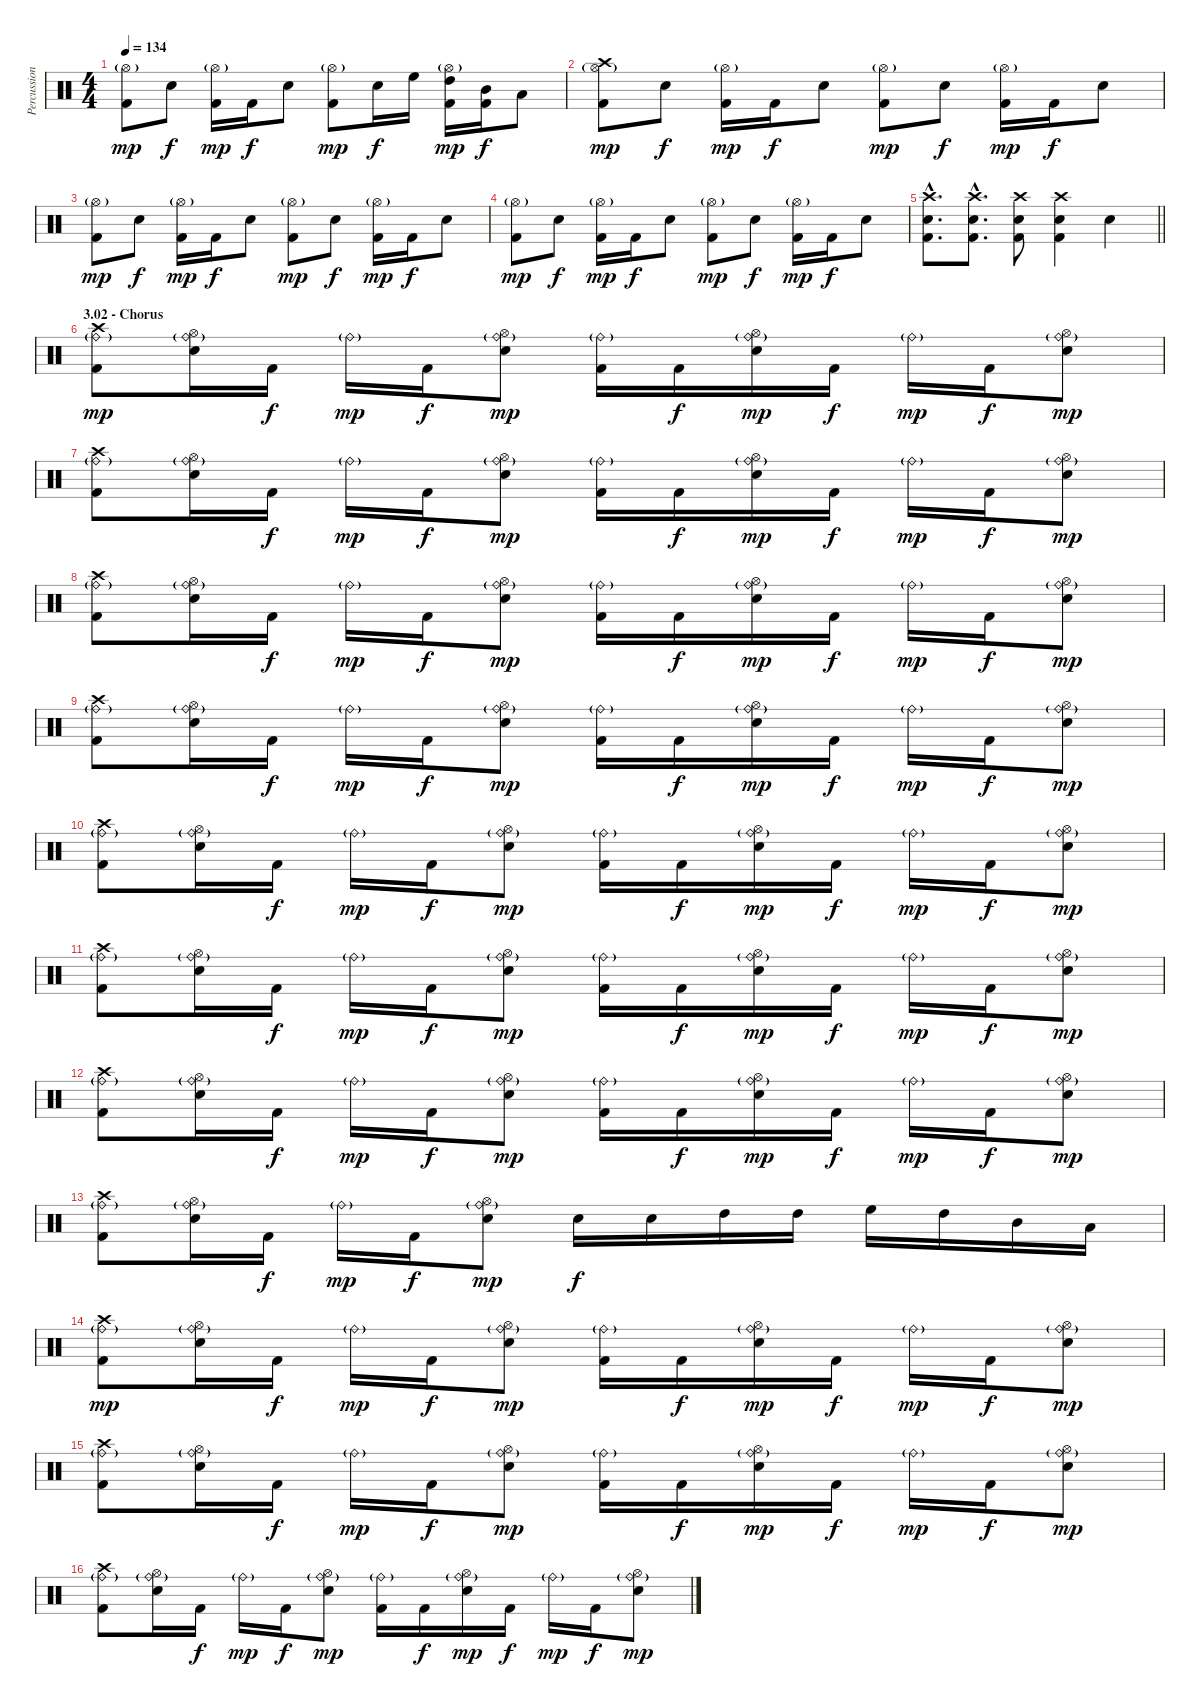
\track ("Percussion" "Percussion") {instrument percussion}
\staff {score}
\articulation defaults
\ts (4 4)
\tempo 134
\clef neutral
\ks aminor
("Hi-Hat (open)"{g} "Kick (hit) 2").8{dy mp} "Electric Snare (hit)".8{dy f} ("Hi-Hat (open)"{g} "Kick (hit) 2").16{dy mp} "Kick (hit) 2".16{dy f} "Electric Snare (hit)".8 ("Hi-Hat (open)"{g} "Kick (hit) 2").8{dy mp} "Electric Snare (hit)".16{dy f} "High Floor Tom (hit)".16 ("Hi-Hat (open)"{g} "High Tom (hit)" "Kick (hit) 2").16{dy mp} ("Mid Tom (hit)" "Kick (hit) 2").16{dy f} "Low Tom (hit)".8 |
("Crash high (hit)" "Hi-Hat (open)"{g} "Kick (hit) 2").8{dy mp} "Electric Snare (hit)".8{dy f} ("Hi-Hat (open)"{g} "Kick (hit) 2").16{dy mp} "Kick (hit) 2".16{dy f} "Electric Snare (hit)".8 ("Hi-Hat (open)"{g} "Kick (hit) 2").8{dy mp} "Electric Snare (hit)".8{dy f} ("Hi-Hat (open)"{g} "Kick (hit) 2").16{dy mp} "Kick (hit) 2".16{dy f} "Electric Snare (hit)".8 |
("Hi-Hat (open)"{g} "Kick (hit) 2").8{dy mp} "Electric Snare (hit)".8{dy f} ("Hi-Hat (open)"{g} "Kick (hit) 2").16{dy mp} "Kick (hit) 2".16{dy f} "Electric Snare (hit)".8 ("Hi-Hat (open)"{g} "Kick (hit) 2").8{dy mp} "Electric Snare (hit)".8{dy f} ("Hi-Hat (open)"{g} "Kick (hit) 2").16{dy mp} "Kick (hit) 2".16{dy f} "Electric Snare (hit)".8 |
("Hi-Hat (open)"{g} "Kick (hit) 2").8{dy mp} "Electric Snare (hit)".8{dy f} ("Hi-Hat (open)"{g} "Kick (hit) 2").16{dy mp} "Kick (hit) 2".16{dy f} "Electric Snare (hit)".8 ("Hi-Hat (open)"{g} "Kick (hit) 2").8{dy mp} "Electric Snare (hit)".8{dy f} ("Hi-Hat (open)"{g} "Kick (hit) 2").16{dy mp} "Kick (hit) 2".16{dy f} "Electric Snare (hit)".8 |
\barLineRight lightlight
("Crash high (hit)"{hac} "Electric Snare (hit)"{hac} "Kick (hit) 2"{hac}).8{d} ("Crash high (hit)"{hac} "Electric Snare (hit)"{hac} "Kick (hit) 2"{hac}).8{d} ("Crash high (hit)" "Electric Snare (hit)" "Kick (hit) 2").8 ("Crash high (hit)" "Electric Snare (hit)" "Kick (hit) 2").4 "Electric Snare (hit)".4 |
\section ("" "3.02 - Chorus")
("Crash high (hit)" "Ride (bell)"{g} "Kick (hit) 2").8{dy mp} ("Hi-Hat (open)" "Ride (bell)"{g} "Electric Snare (hit)").16 "Kick (hit) 2".16{dy f} "Ride (bell)"{g}.16{dy mp} "Kick (hit) 2".16{dy f} ("Hi-Hat (open)" "Ride (bell)"{g} "Electric Snare (hit)").8{dy mp} ("Ride (bell)"{g} "Kick (hit) 2").16 "Kick (hit) 2".16{dy f} ("Hi-Hat (open)" "Ride (bell)"{g} "Electric Snare (hit)").16{dy mp} "Kick (hit) 2".16{dy f} "Ride (bell)"{g}.16{dy mp} "Kick (hit) 2".16{dy f} ("Hi-Hat (open)" "Ride (bell)"{g} "Electric Snare (hit)").8{dy mp} |
("Crash high (hit)" "Ride (bell)"{g} "Kick (hit) 2").8 ("Hi-Hat (open)" "Ride (bell)"{g} "Electric Snare (hit)").16 "Kick (hit) 2".16{dy f} "Ride (bell)"{g}.16{dy mp} "Kick (hit) 2".16{dy f} ("Hi-Hat (open)" "Ride (bell)"{g} "Electric Snare (hit)").8{dy mp} ("Ride (bell)"{g} "Kick (hit) 2").16 "Kick (hit) 2".16{dy f} ("Hi-Hat (open)" "Ride (bell)"{g} "Electric Snare (hit)").16{dy mp} "Kick (hit) 2".16{dy f} "Ride (bell)"{g}.16{dy mp} "Kick (hit) 2".16{dy f} ("Hi-Hat (open)" "Ride (bell)"{g} "Electric Snare (hit)").8{dy mp} |
("Crash high (hit)" "Ride (bell)"{g} "Kick (hit) 2").8 ("Hi-Hat (open)" "Ride (bell)"{g} "Electric Snare (hit)").16 "Kick (hit) 2".16{dy f} "Ride (bell)"{g}.16{dy mp} "Kick (hit) 2".16{dy f} ("Hi-Hat (open)" "Ride (bell)"{g} "Electric Snare (hit)").8{dy mp} ("Ride (bell)"{g} "Kick (hit) 2").16 "Kick (hit) 2".16{dy f} ("Hi-Hat (open)" "Ride (bell)"{g} "Electric Snare (hit)").16{dy mp} "Kick (hit) 2".16{dy f} "Ride (bell)"{g}.16{dy mp} "Kick (hit) 2".16{dy f} ("Hi-Hat (open)" "Ride (bell)"{g} "Electric Snare (hit)").8{dy mp} |
("Crash high (hit)" "Ride (bell)"{g} "Kick (hit) 2").8 ("Hi-Hat (open)" "Ride (bell)"{g} "Electric Snare (hit)").16 "Kick (hit) 2".16{dy f} "Ride (bell)"{g}.16{dy mp} "Kick (hit) 2".16{dy f} ("Hi-Hat (open)" "Ride (bell)"{g} "Electric Snare (hit)").8{dy mp} ("Ride (bell)"{g} "Kick (hit) 2").16 "Kick (hit) 2".16{dy f} ("Hi-Hat (open)" "Ride (bell)"{g} "Electric Snare (hit)").16{dy mp} "Kick (hit) 2".16{dy f} "Ride (bell)"{g}.16{dy mp} "Kick (hit) 2".16{dy f} ("Hi-Hat (open)" "Ride (bell)"{g} "Electric Snare (hit)").8{dy mp} |
("Crash high (hit)" "Ride (bell)"{g} "Kick (hit) 2").8 ("Hi-Hat (open)" "Ride (bell)"{g} "Electric Snare (hit)").16 "Kick (hit) 2".16{dy f} "Ride (bell)"{g}.16{dy mp} "Kick (hit) 2".16{dy f} ("Hi-Hat (open)" "Ride (bell)"{g} "Electric Snare (hit)").8{dy mp} ("Ride (bell)"{g} "Kick (hit) 2").16 "Kick (hit) 2".16{dy f} ("Hi-Hat (open)" "Ride (bell)"{g} "Electric Snare (hit)").16{dy mp} "Kick (hit) 2".16{dy f} "Ride (bell)"{g}.16{dy mp} "Kick (hit) 2".16{dy f} ("Hi-Hat (open)" "Ride (bell)"{g} "Electric Snare (hit)").8{dy mp} |
("Crash high (hit)" "Ride (bell)"{g} "Kick (hit) 2").8 ("Hi-Hat (open)" "Ride (bell)"{g} "Electric Snare (hit)").16 "Kick (hit) 2".16{dy f} "Ride (bell)"{g}.16{dy mp} "Kick (hit) 2".16{dy f} ("Hi-Hat (open)" "Ride (bell)"{g} "Electric Snare (hit)").8{dy mp} ("Ride (bell)"{g} "Kick (hit) 2").16 "Kick (hit) 2".16{dy f} ("Hi-Hat (open)" "Ride (bell)"{g} "Electric Snare (hit)").16{dy mp} "Kick (hit) 2".16{dy f} "Ride (bell)"{g}.16{dy mp} "Kick (hit) 2".16{dy f} ("Hi-Hat (open)" "Ride (bell)"{g} "Electric Snare (hit)").8{dy mp} |
("Crash high (hit)" "Ride (bell)"{g} "Kick (hit) 2").8 ("Hi-Hat (open)" "Ride (bell)"{g} "Electric Snare (hit)").16 "Kick (hit) 2".16{dy f} "Ride (bell)"{g}.16{dy mp} "Kick (hit) 2".16{dy f} ("Hi-Hat (open)" "Ride (bell)"{g} "Electric Snare (hit)").8{dy mp} ("Ride (bell)"{g} "Kick (hit) 2").16 "Kick (hit) 2".16{dy f} ("Hi-Hat (open)" "Ride (bell)"{g} "Electric Snare (hit)").16{dy mp} "Kick (hit) 2".16{dy f} "Ride (bell)"{g}.16{dy mp} "Kick (hit) 2".16{dy f} ("Hi-Hat (open)" "Ride (bell)"{g} "Electric Snare (hit)").8{dy mp} |
("Crash high (hit)" "Ride (bell)"{g} "Kick (hit) 2").8 ("Hi-Hat (open)" "Ride (bell)"{g} "Electric Snare (hit)").16 "Kick (hit) 2".16{dy f} "Ride (bell)"{g}.16{dy mp} "Kick (hit) 2".16{dy f} ("Hi-Hat (open)" "Ride (bell)"{g} "Electric Snare (hit)").8{dy mp} "Electric Snare (hit)".16{dy f} "Electric Snare (hit)".16 "High Tom (hit)".16 "High Tom (hit)".16 "High Floor Tom (hit)".16 "High Tom (hit)".16 "Mid Tom (hit)".16 "Low Tom (hit)".16 |
("Crash high (hit)" "Ride (bell)"{g} "Kick (hit) 2").8{dy mp} ("Hi-Hat (open)" "Ride (bell)"{g} "Electric Snare (hit)").16 "Kick (hit) 2".16{dy f} "Ride (bell)"{g}.16{dy mp} "Kick (hit) 2".16{dy f} ("Hi-Hat (open)" "Ride (bell)"{g} "Electric Snare (hit)").8{dy mp} ("Ride (bell)"{g} "Kick (hit) 2").16 "Kick (hit) 2".16{dy f} ("Hi-Hat (open)" "Ride (bell)"{g} "Electric Snare (hit)").16{dy mp} "Kick (hit) 2".16{dy f} "Ride (bell)"{g}.16{dy mp} "Kick (hit) 2".16{dy f} ("Hi-Hat (open)" "Ride (bell)"{g} "Electric Snare (hit)").8{dy mp} |
("Crash high (hit)" "Ride (bell)"{g} "Kick (hit) 2").8 ("Hi-Hat (open)" "Ride (bell)"{g} "Electric Snare (hit)").16 "Kick (hit) 2".16{dy f} "Ride (bell)"{g}.16{dy mp} "Kick (hit) 2".16{dy f} ("Hi-Hat (open)" "Ride (bell)"{g} "Electric Snare (hit)").8{dy mp} ("Ride (bell)"{g} "Kick (hit) 2").16 "Kick (hit) 2".16{dy f} ("Hi-Hat (open)" "Ride (bell)"{g} "Electric Snare (hit)").16{dy mp} "Kick (hit) 2".16{dy f} "Ride (bell)"{g}.16{dy mp} "Kick (hit) 2".16{dy f} ("Hi-Hat (open)" "Ride (bell)"{g} "Electric Snare (hit)").8{dy mp} |
("Crash high (hit)" "Ride (bell)"{g} "Kick (hit) 2").8 ("Hi-Hat (open)" "Ride (bell)"{g} "Electric Snare (hit)").16 "Kick (hit) 2".16{dy f} "Ride (bell)"{g}.16{dy mp} "Kick (hit) 2".16{dy f} ("Hi-Hat (open)" "Ride (bell)"{g} "Electric Snare (hit)").8{dy mp} ("Ride (bell)"{g} "Kick (hit) 2").16 "Kick (hit) 2".16{dy f} ("Hi-Hat (open)" "Ride (bell)"{g} "Electric Snare (hit)").16{dy mp} "Kick (hit) 2".16{dy f} "Ride (bell)"{g}.16{dy mp} "Kick (hit) 2".16{dy f} ("Hi-Hat (open)" "Ride (bell)"{g} "Electric Snare (hit)").8{dy mp}
